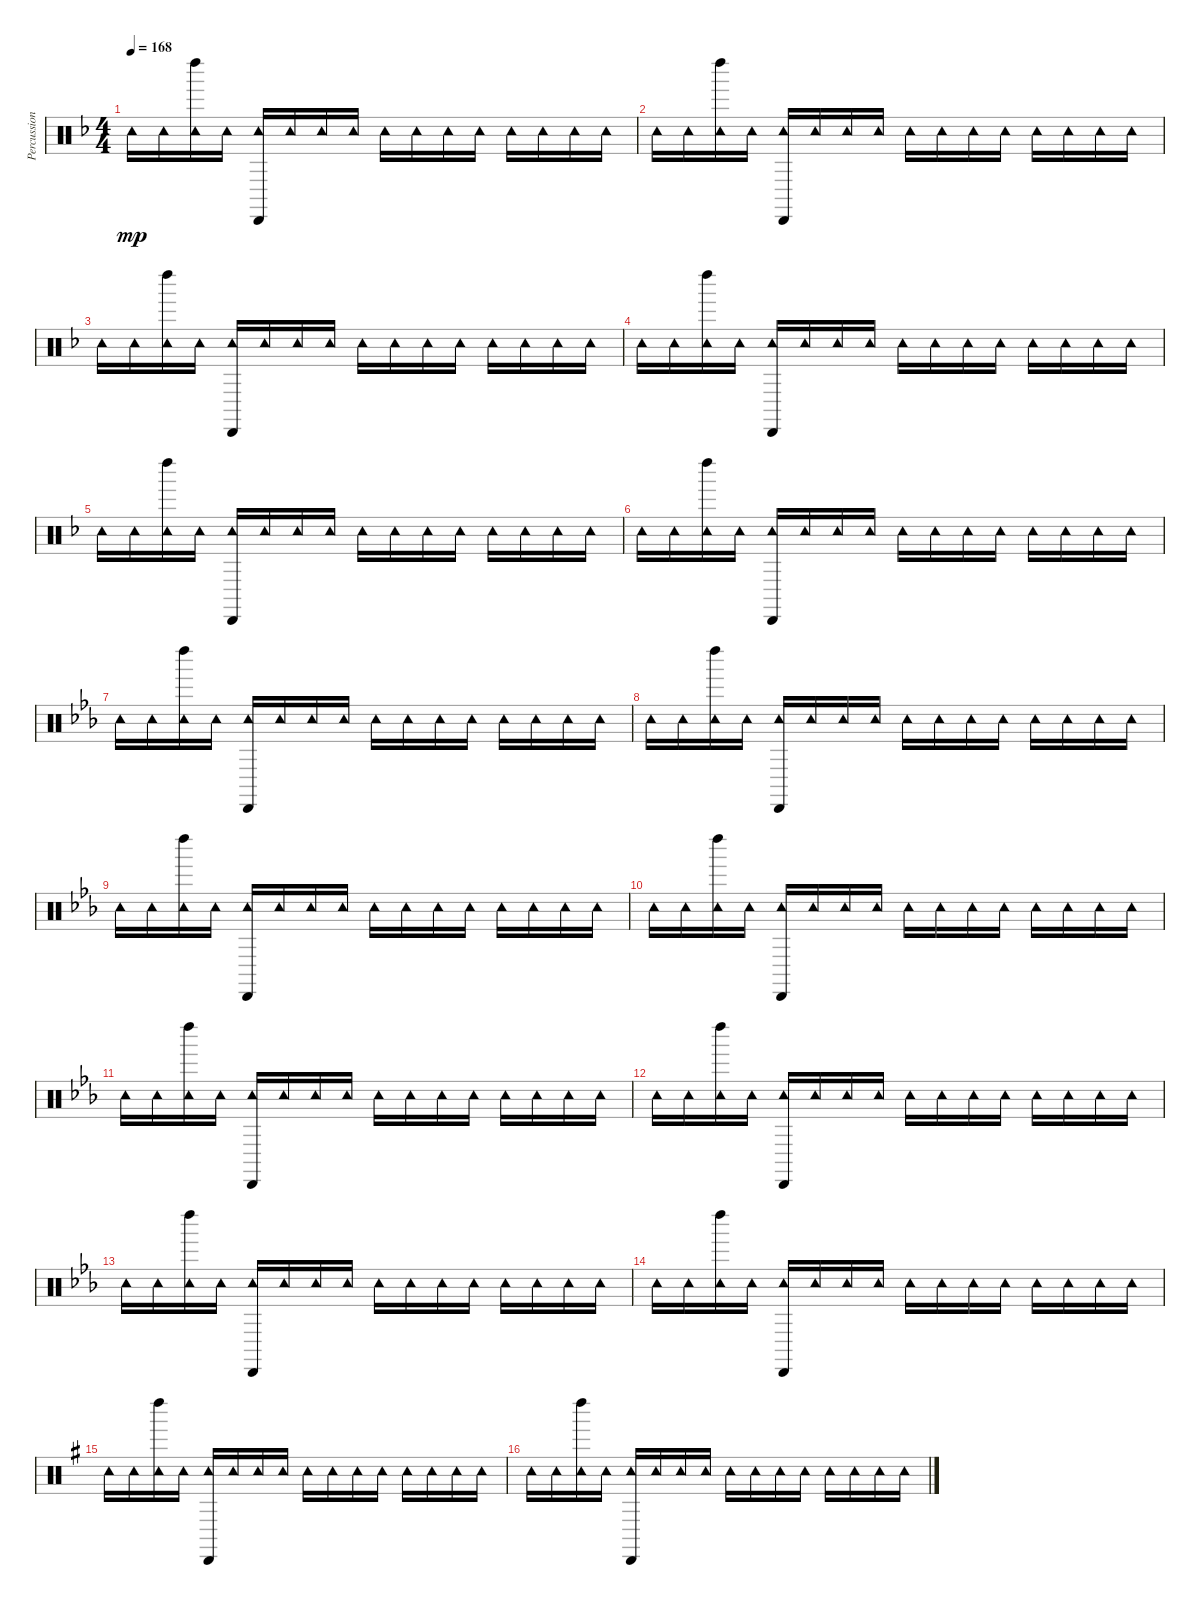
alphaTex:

\track ("Percussions" "Percussion") {instrument percussion}
\staff {score}
\articulation defaults
\ts (4 4)
\tempo 168
\clef neutral
\ks f "Tambourine (hit)".16{dy mp} "Tambourine (hit)".16
("Left Maraca (hit)" "Tambourine (hit)").16 "Tambourine (hit)".16 ("Cabasa (hit)" "Tambourine (hit)").16 "Tambourine (hit)".16 "Tambourine (hit)".16 "Tambourine (hit)".16 "Tambourine (hit)".16 "Tambourine (hit)".16 "Tambourine (hit)".16 "Tambourine (hit)".16 "Tambourine (hit)".16 "Tambourine (hit)".16 "Tambourine (hit)".16 "Tambourine (hit)".16 |
"Tambourine (hit)".16 "Tambourine (hit)".16 ("Left Maraca (hit)" "Tambourine (hit)").16 "Tambourine (hit)".16 ("Cabasa (hit)" "Tambourine (hit)").16 "Tambourine (hit)".16 "Tambourine (hit)".16 "Tambourine (hit)".16 "Tambourine (hit)".16 "Tambourine (hit)".16 "Tambourine (hit)".16 "Tambourine (hit)".16 "Tambourine (hit)".16 "Tambourine (hit)".16 "Tambourine (hit)".16 "Tambourine (hit)".16 |
"Tambourine (hit)".16 "Tambourine (hit)".16 ("Left Maraca (hit)" "Tambourine (hit)").16 "Tambourine (hit)".16 ("Cabasa (hit)" "Tambourine (hit)").16 "Tambourine (hit)".16 "Tambourine (hit)".16 "Tambourine (hit)".16 "Tambourine (hit)".16 "Tambourine (hit)".16 "Tambourine (hit)".16 "Tambourine (hit)".16 "Tambourine (hit)".16 "Tambourine (hit)".16 "Tambourine (hit)".16 "Tambourine (hit)".16 |
"Tambourine (hit)".16 "Tambourine (hit)".16 ("Left Maraca (hit)" "Tambourine (hit)").16 "Tambourine (hit)".16 ("Cabasa (hit)" "Tambourine (hit)").16 "Tambourine (hit)".16 "Tambourine (hit)".16 "Tambourine (hit)".16 "Tambourine (hit)".16 "Tambourine (hit)".16 "Tambourine (hit)".16 "Tambourine (hit)".16 "Tambourine (hit)".16 "Tambourine (hit)".16 "Tambourine (hit)".16 "Tambourine (hit)".16 |
"Tambourine (hit)".16 "Tambourine (hit)".16 ("Left Maraca (hit)" "Tambourine (hit)").16 "Tambourine (hit)".16 ("Cabasa (hit)" "Tambourine (hit)").16 "Tambourine (hit)".16 "Tambourine (hit)".16 "Tambourine (hit)".16 "Tambourine (hit)".16 "Tambourine (hit)".16 "Tambourine (hit)".16 "Tambourine (hit)".16 "Tambourine (hit)".16 "Tambourine (hit)".16 "Tambourine (hit)".16 "Tambourine (hit)".16 |
"Tambourine (hit)".16 "Tambourine (hit)".16 ("Left Maraca (hit)" "Tambourine (hit)").16 "Tambourine (hit)".16 ("Cabasa (hit)" "Tambourine (hit)").16 "Tambourine (hit)".16 "Tambourine (hit)".16 "Tambourine (hit)".16 "Tambourine (hit)".16 "Tambourine (hit)".16 "Tambourine (hit)".16 "Tambourine (hit)".16 "Tambourine (hit)".16 "Tambourine (hit)".16 "Tambourine (hit)".16 "Tambourine (hit)".16 |
\ks eb "Tambourine (hit)".16 "Tambourine (hit)".16
("Left Maraca (hit)" "Tambourine (hit)").16 "Tambourine (hit)".16 ("Cabasa (hit)" "Tambourine (hit)").16 "Tambourine (hit)".16 "Tambourine (hit)".16 "Tambourine (hit)".16 "Tambourine (hit)".16 "Tambourine (hit)".16 "Tambourine (hit)".16 "Tambourine (hit)".16 "Tambourine (hit)".16 "Tambourine (hit)".16 "Tambourine (hit)".16 "Tambourine (hit)".16 |
"Tambourine (hit)".16 "Tambourine (hit)".16 ("Left Maraca (hit)" "Tambourine (hit)").16 "Tambourine (hit)".16 ("Cabasa (hit)" "Tambourine (hit)").16 "Tambourine (hit)".16 "Tambourine (hit)".16 "Tambourine (hit)".16 "Tambourine (hit)".16 "Tambourine (hit)".16 "Tambourine (hit)".16 "Tambourine (hit)".16 "Tambourine (hit)".16 "Tambourine (hit)".16 "Tambourine (hit)".16 "Tambourine (hit)".16 |
"Tambourine (hit)".16 "Tambourine (hit)".16 ("Left Maraca (hit)" "Tambourine (hit)").16 "Tambourine (hit)".16 ("Cabasa (hit)" "Tambourine (hit)").16 "Tambourine (hit)".16 "Tambourine (hit)".16 "Tambourine (hit)".16 "Tambourine (hit)".16 "Tambourine (hit)".16 "Tambourine (hit)".16 "Tambourine (hit)".16 "Tambourine (hit)".16 "Tambourine (hit)".16 "Tambourine (hit)".16 "Tambourine (hit)".16 |
"Tambourine (hit)".16 "Tambourine (hit)".16 ("Left Maraca (hit)" "Tambourine (hit)").16 "Tambourine (hit)".16 ("Cabasa (hit)" "Tambourine (hit)").16 "Tambourine (hit)".16 "Tambourine (hit)".16 "Tambourine (hit)".16 "Tambourine (hit)".16 "Tambourine (hit)".16 "Tambourine (hit)".16 "Tambourine (hit)".16 "Tambourine (hit)".16 "Tambourine (hit)".16 "Tambourine (hit)".16 "Tambourine (hit)".16 |
"Tambourine (hit)".16 "Tambourine (hit)".16 ("Left Maraca (hit)" "Tambourine (hit)").16 "Tambourine (hit)".16 ("Cabasa (hit)" "Tambourine (hit)").16 "Tambourine (hit)".16 "Tambourine (hit)".16 "Tambourine (hit)".16 "Tambourine (hit)".16 "Tambourine (hit)".16 "Tambourine (hit)".16 "Tambourine (hit)".16 "Tambourine (hit)".16 "Tambourine (hit)".16 "Tambourine (hit)".16 "Tambourine (hit)".16 |
"Tambourine (hit)".16 "Tambourine (hit)".16 ("Left Maraca (hit)" "Tambourine (hit)").16 "Tambourine (hit)".16 ("Cabasa (hit)" "Tambourine (hit)").16 "Tambourine (hit)".16 "Tambourine (hit)".16 "Tambourine (hit)".16 "Tambourine (hit)".16 "Tambourine (hit)".16 "Tambourine (hit)".16 "Tambourine (hit)".16 "Tambourine (hit)".16 "Tambourine (hit)".16 "Tambourine (hit)".16 "Tambourine (hit)".16 |
"Tambourine (hit)".16 "Tambourine (hit)".16 ("Left Maraca (hit)" "Tambourine (hit)").16 "Tambourine (hit)".16 ("Cabasa (hit)" "Tambourine (hit)").16 "Tambourine (hit)".16 "Tambourine (hit)".16 "Tambourine (hit)".16 "Tambourine (hit)".16 "Tambourine (hit)".16 "Tambourine (hit)".16 "Tambourine (hit)".16 "Tambourine (hit)".16 "Tambourine (hit)".16 "Tambourine (hit)".16 "Tambourine (hit)".16 |
"Tambourine (hit)".16 "Tambourine (hit)".16 ("Left Maraca (hit)" "Tambourine (hit)").16 "Tambourine (hit)".16 ("Cabasa (hit)" "Tambourine (hit)").16 "Tambourine (hit)".16 "Tambourine (hit)".16 "Tambourine (hit)".16 "Tambourine (hit)".16 "Tambourine (hit)".16 "Tambourine (hit)".16 "Tambourine (hit)".16 "Tambourine (hit)".16 "Tambourine (hit)".16 "Tambourine (hit)".16 "Tambourine (hit)".16 |
\ks g "Tambourine (hit)".16 "Tambourine (hit)".16
("Left Maraca (hit)" "Tambourine (hit)").16 "Tambourine (hit)".16 ("Cabasa (hit)" "Tambourine (hit)").16 "Tambourine (hit)".16 "Tambourine (hit)".16 "Tambourine (hit)".16 "Tambourine (hit)".16 "Tambourine (hit)".16 "Tambourine (hit)".16 "Tambourine (hit)".16 "Tambourine (hit)".16 "Tambourine (hit)".16 "Tambourine (hit)".16 "Tambourine (hit)".16 |
"Tambourine (hit)".16 "Tambourine (hit)".16 ("Left Maraca (hit)" "Tambourine (hit)").16 "Tambourine (hit)".16 ("Cabasa (hit)" "Tambourine (hit)").16 "Tambourine (hit)".16 "Tambourine (hit)".16 "Tambourine (hit)".16 "Tambourine (hit)".16 "Tambourine (hit)".16 "Tambourine (hit)".16 "Tambourine (hit)".16 "Tambourine (hit)".16 "Tambourine (hit)".16 "Tambourine (hit)".16 "Tambourine (hit)".16
